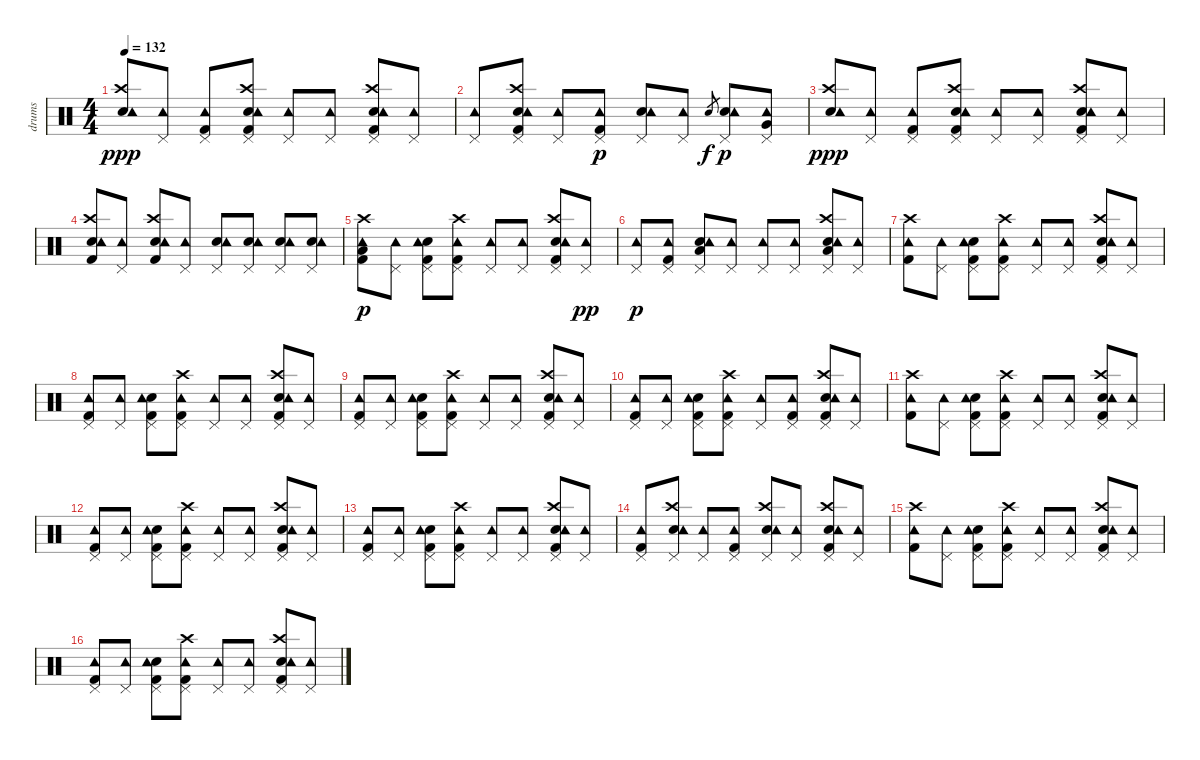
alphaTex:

\track ("drums" "drums") {instrument percussion}
\staff {score}
\articulation defaults
\ts (4 4)
\tempo 132
\clef neutral
\ks c
("Electric Snare (hit)" "Crash high (hit)" "Tambourine (hit)").8{dy ppp} ("Pedal Hi-Hat (hit)" "Tambourine (hit)").8 ("Kick (hit) 2" "Pedal Hi-Hat (hit)" "Tambourine (hit)").8 ("Electric Snare (hit)" "Crash high (hit)" "Kick (hit) 2" "Pedal Hi-Hat (hit)" "Tambourine (hit)").8 ("Pedal Hi-Hat (hit)" "Tambourine (hit)").8 ("Pedal Hi-Hat (hit)" "Tambourine (hit)").8 ("Electric Snare (hit)" "Crash high (hit)" "Kick (hit) 2" "Pedal Hi-Hat (hit)" "Tambourine (hit)").8 ("Pedal Hi-Hat (hit)" "Tambourine (hit)").8 |
("Pedal Hi-Hat (hit)" "Tambourine (hit)").8 ("Electric Snare (hit)" "Crash high (hit)" "Kick (hit) 2" "Pedal Hi-Hat (hit)" "Tambourine (hit)").8 ("Pedal Hi-Hat (hit)" "Tambourine (hit)").8 ("Kick (hit) 2" "Pedal Hi-Hat (hit)" "Tambourine (hit)").8{dy p} ("Electric Snare (hit)" "Pedal Hi-Hat (hit)" "Tambourine (hit)").8 ("Pedal Hi-Hat (hit)" "Tambourine (hit)").8 "Electric Snare (hit)".8{gr dy f} ("Electric Snare (hit)" "Pedal Hi-Hat (hit)" "Tambourine (hit)").8{dy p} ("Very Low Tom (hit)" "Pedal Hi-Hat (hit)" "Tambourine (hit)").8 |
("Electric Snare (hit)" "Crash high (hit)" "Tambourine (hit)").8{dy ppp} ("Pedal Hi-Hat (hit)" "Tambourine (hit)").8 ("Kick (hit) 2" "Pedal Hi-Hat (hit)" "Tambourine (hit)").8 ("Electric Snare (hit)" "Crash high (hit)" "Kick (hit) 2" "Pedal Hi-Hat (hit)" "Tambourine (hit)").8 ("Pedal Hi-Hat (hit)" "Tambourine (hit)").8 ("Pedal Hi-Hat (hit)" "Tambourine (hit)").8 ("Electric Snare (hit)" "Crash high (hit)" "Kick (hit) 2" "Pedal Hi-Hat (hit)" "Tambourine (hit)").8 ("Pedal Hi-Hat (hit)" "Tambourine (hit)").8 |
("Electric Snare (hit)" "Kick (hit) 2" "Crash high (hit)" "Tambourine (hit)").8 ("Pedal Hi-Hat (hit)" "Tambourine (hit)").8 ("Electric Snare (hit)" "Kick (hit) 2" "Crash high (hit)" "Tambourine (hit)").8 ("Pedal Hi-Hat (hit)" "Tambourine (hit)").8 ("Electric Snare (hit)"{tr (40 16)} "Pedal Hi-Hat (hit)" "Tambourine (hit)").8 ("Electric Snare (hit)"{tr (40 16)} "Pedal Hi-Hat (hit)" "Tambourine (hit)").8 ("Electric Snare (hit)"{tr (40 16)} "Pedal Hi-Hat (hit)" "Tambourine (hit)").8 ("Electric Snare (hit)"{tr (40 16)} "Pedal Hi-Hat (hit)" "Tambourine (hit)").8 |
("Low Floor Tom (hit)" "Kick (hit) 2" "Crash high (hit)" "Tambourine (hit)").8{dy p} ("Pedal Hi-Hat (hit)" "Tambourine (hit)").8 ("Electric Snare (hit)" "Kick (hit) 2" "Pedal Hi-Hat (hit)" "Tambourine (hit)").8 ("Crash high (hit)" "Kick (hit) 2" "Pedal Hi-Hat (hit)" "Tambourine (hit)").8 ("Pedal Hi-Hat (hit)" "Tambourine (hit)").8 ("Pedal Hi-Hat (hit)" "Tambourine (hit)").8 ("Electric Snare (hit)" "Crash high (hit)" "Kick (hit) 2" "Pedal Hi-Hat (hit)" "Tambourine (hit)").8 ("Pedal Hi-Hat (hit)" "Tambourine (hit)").8{dy pp} |
("Pedal Hi-Hat (hit)" "Tambourine (hit)").8{dy p} ("Kick (hit) 2" "Pedal Hi-Hat (hit)" "Tambourine (hit)").8 ("Electric Snare (hit)" "Low Tom (hit)" "Pedal Hi-Hat (hit)" "Tambourine (hit)").8 ("Pedal Hi-Hat (hit)" "Tambourine (hit)").8 ("Pedal Hi-Hat (hit)" "Tambourine (hit)").8 ("Pedal Hi-Hat (hit)" "Tambourine (hit)").8 ("Electric Snare (hit)" "Crash high (hit)" "Low Tom (hit)" "Pedal Hi-Hat (hit)" "Tambourine (hit)").8 ("Pedal Hi-Hat (hit)" "Tambourine (hit)").8 |
("Kick (hit) 2" "Crash high (hit)" "Tambourine (hit)").8 ("Pedal Hi-Hat (hit)" "Tambourine (hit)").8 ("Electric Snare (hit)" "Kick (hit) 2" "Pedal Hi-Hat (hit)" "Tambourine (hit)").8 ("Crash high (hit)" "Kick (hit) 2" "Pedal Hi-Hat (hit)" "Tambourine (hit)").8 ("Pedal Hi-Hat (hit)" "Tambourine (hit)").8 ("Pedal Hi-Hat (hit)" "Tambourine (hit)").8 ("Electric Snare (hit)" "Crash high (hit)" "Kick (hit) 2" "Pedal Hi-Hat (hit)" "Tambourine (hit)").8 ("Pedal Hi-Hat (hit)" "Tambourine (hit)").8 |
("Kick (hit) 2" "Pedal Hi-Hat (hit)" "Tambourine (hit)").8 ("Pedal Hi-Hat (hit)" "Tambourine (hit)").8 ("Electric Snare (hit)" "Kick (hit) 2" "Pedal Hi-Hat (hit)" "Tambourine (hit)").8 ("Crash high (hit)" "Kick (hit) 2" "Pedal Hi-Hat (hit)" "Tambourine (hit)").8 ("Pedal Hi-Hat (hit)" "Tambourine (hit)").8 ("Pedal Hi-Hat (hit)" "Tambourine (hit)").8 ("Electric Snare (hit)" "Crash high (hit)" "Kick (hit) 2" "Pedal Hi-Hat (hit)" "Tambourine (hit)").8 ("Pedal Hi-Hat (hit)" "Tambourine (hit)").8 |
("Kick (hit) 2" "Pedal Hi-Hat (hit)" "Tambourine (hit)").8 ("Pedal Hi-Hat (hit)" "Tambourine (hit)").8 ("Electric Snare (hit)" "Kick (hit) 2" "Pedal Hi-Hat (hit)" "Tambourine (hit)").8 ("Crash high (hit)" "Kick (hit) 2" "Pedal Hi-Hat (hit)" "Tambourine (hit)").8 ("Pedal Hi-Hat (hit)" "Tambourine (hit)").8 ("Pedal Hi-Hat (hit)" "Tambourine (hit)").8 ("Electric Snare (hit)" "Crash high (hit)" "Kick (hit) 2" "Pedal Hi-Hat (hit)" "Tambourine (hit)").8 ("Pedal Hi-Hat (hit)" "Tambourine (hit)").8 |
("Kick (hit) 2" "Pedal Hi-Hat (hit)" "Tambourine (hit)").8 ("Pedal Hi-Hat (hit)" "Tambourine (hit)").8 ("Electric Snare (hit)" "Kick (hit) 2" "Pedal Hi-Hat (hit)" "Tambourine (hit)").8 ("Crash high (hit)" "Kick (hit) 2" "Pedal Hi-Hat (hit)" "Tambourine (hit)").8 ("Pedal Hi-Hat (hit)" "Tambourine (hit)").8 ("Kick (hit) 2" "Pedal Hi-Hat (hit)" "Tambourine (hit)").8 ("Electric Snare (hit)" "Crash high (hit)" "Kick (hit) 2" "Pedal Hi-Hat (hit)" "Tambourine (hit)").8 ("Pedal Hi-Hat (hit)" "Tambourine (hit)").8 |
("Kick (hit) 2" "Crash high (hit)" "Tambourine (hit)").8 ("Pedal Hi-Hat (hit)" "Tambourine (hit)").8 ("Electric Snare (hit)" "Kick (hit) 2" "Pedal Hi-Hat (hit)" "Tambourine (hit)").8 ("Crash high (hit)" "Kick (hit) 2" "Pedal Hi-Hat (hit)" "Tambourine (hit)").8 ("Pedal Hi-Hat (hit)" "Tambourine (hit)").8 ("Pedal Hi-Hat (hit)" "Tambourine (hit)").8 ("Electric Snare (hit)" "Crash high (hit)" "Kick (hit) 2" "Pedal Hi-Hat (hit)" "Tambourine (hit)").8 ("Pedal Hi-Hat (hit)" "Tambourine (hit)").8 |
("Kick (hit) 2" "Pedal Hi-Hat (hit)" "Tambourine (hit)").8 ("Pedal Hi-Hat (hit)" "Tambourine (hit)").8 ("Electric Snare (hit)" "Kick (hit) 2" "Pedal Hi-Hat (hit)" "Tambourine (hit)").8 ("Crash high (hit)" "Kick (hit) 2" "Pedal Hi-Hat (hit)" "Tambourine (hit)").8 ("Pedal Hi-Hat (hit)" "Tambourine (hit)").8 ("Pedal Hi-Hat (hit)" "Tambourine (hit)").8 ("Electric Snare (hit)" "Crash high (hit)" "Kick (hit) 2" "Pedal Hi-Hat (hit)" "Tambourine (hit)").8 ("Pedal Hi-Hat (hit)" "Tambourine (hit)").8 |
("Kick (hit) 2" "Pedal Hi-Hat (hit)" "Tambourine (hit)").8 ("Pedal Hi-Hat (hit)" "Tambourine (hit)").8 ("Electric Snare (hit)" "Kick (hit) 2" "Pedal Hi-Hat (hit)" "Tambourine (hit)").8 ("Crash high (hit)" "Kick (hit) 2" "Pedal Hi-Hat (hit)" "Tambourine (hit)").8 ("Pedal Hi-Hat (hit)" "Tambourine (hit)").8 ("Pedal Hi-Hat (hit)" "Tambourine (hit)").8 ("Electric Snare (hit)" "Crash high (hit)" "Kick (hit) 2" "Pedal Hi-Hat (hit)" "Tambourine (hit)").8 ("Pedal Hi-Hat (hit)" "Tambourine (hit)").8 |
("Kick (hit) 2" "Pedal Hi-Hat (hit)" "Tambourine (hit)").8 ("Electric Snare (hit)" "Crash high (hit)" "Pedal Hi-Hat (hit)" "Tambourine (hit)").8 ("Pedal Hi-Hat (hit)" "Tambourine (hit)").8 ("Kick (hit) 2" "Pedal Hi-Hat (hit)" "Tambourine (hit)").8 ("Electric Snare (hit)" "Crash high (hit)" "Pedal Hi-Hat (hit)" "Tambourine (hit)").8 ("Pedal Hi-Hat (hit)" "Tambourine (hit)").8 ("Electric Snare (hit)" "Crash high (hit)" "Kick (hit) 2" "Pedal Hi-Hat (hit)" "Tambourine (hit)").8 ("Pedal Hi-Hat (hit)" "Tambourine (hit)").8 |
("Kick (hit) 2" "Crash high (hit)" "Tambourine (hit)").8 ("Pedal Hi-Hat (hit)" "Tambourine (hit)").8 ("Electric Snare (hit)" "Kick (hit) 2" "Pedal Hi-Hat (hit)" "Tambourine (hit)").8 ("Crash high (hit)" "Kick (hit) 2" "Pedal Hi-Hat (hit)" "Tambourine (hit)").8 ("Pedal Hi-Hat (hit)" "Tambourine (hit)").8 ("Pedal Hi-Hat (hit)" "Tambourine (hit)").8 ("Electric Snare (hit)" "Crash high (hit)" "Kick (hit) 2" "Pedal Hi-Hat (hit)" "Tambourine (hit)").8 ("Pedal Hi-Hat (hit)" "Tambourine (hit)").8 |
("Kick (hit) 2" "Pedal Hi-Hat (hit)" "Tambourine (hit)").8 ("Pedal Hi-Hat (hit)" "Tambourine (hit)").8 ("Electric Snare (hit)" "Kick (hit) 2" "Pedal Hi-Hat (hit)" "Tambourine (hit)").8 ("Crash high (hit)" "Kick (hit) 2" "Pedal Hi-Hat (hit)" "Tambourine (hit)").8 ("Pedal Hi-Hat (hit)" "Tambourine (hit)").8 ("Pedal Hi-Hat (hit)" "Tambourine (hit)").8 ("Electric Snare (hit)" "Crash high (hit)" "Kick (hit) 2" "Pedal Hi-Hat (hit)" "Tambourine (hit)").8 ("Pedal Hi-Hat (hit)" "Tambourine (hit)").8
